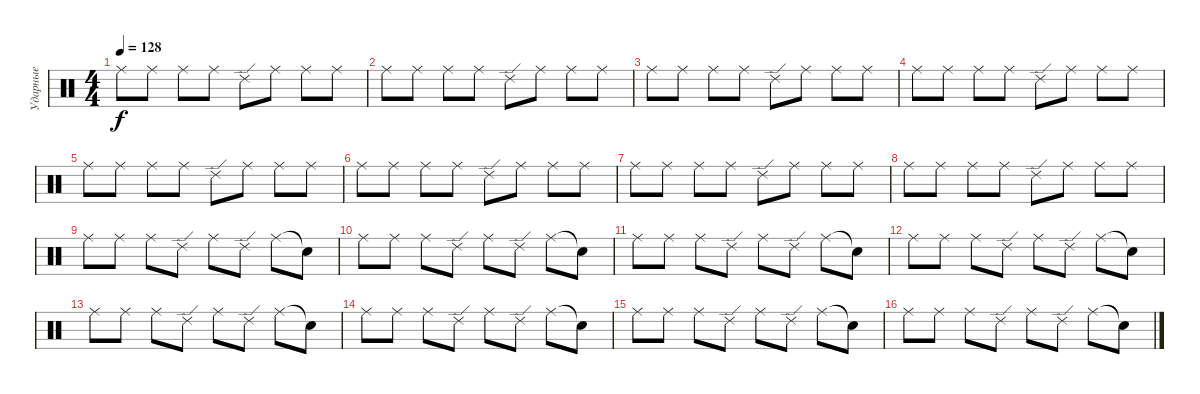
\track ("Ударные" "Ударные") {instrument percussion}
\staff {score}
\articulation defaults
\ts (4 4)
\tempo 128
\clef neutral
\ks c "Ride (middle)".8{dy f} "Ride (middle)".8 "Ride (middle)".8 "Ride (middle)".8 "Ride (edge) 2".8 "Ride (middle)".8 "Ride (middle)".8 "Ride (middle)".8
|
"Ride (middle)".8 "Ride (middle)".8 "Ride (middle)".8 "Ride (middle)".8 "Ride (edge) 2".8 "Ride (middle)".8 "Ride (middle)".8 "Ride (middle)".8 |
"Ride (middle)".8 "Ride (middle)".8 "Ride (middle)".8 "Ride (middle)".8 "Ride (edge) 2".8 "Ride (middle)".8 "Ride (middle)".8 "Ride (middle)".8 |
"Ride (middle)".8 "Ride (middle)".8 "Ride (middle)".8 "Ride (middle)".8 "Ride (edge) 2".8 "Ride (middle)".8 "Ride (middle)".8 "Ride (middle)".8 |
"Ride (middle)".8 "Ride (middle)".8 "Ride (middle)".8 "Ride (middle)".8 "Ride (edge) 2".8 "Ride (middle)".8 "Ride (middle)".8 "Ride (middle)".8 |
"Ride (middle)".8 "Ride (middle)".8 "Ride (middle)".8 "Ride (middle)".8 "Ride (edge) 2".8 "Ride (middle)".8 "Ride (middle)".8 "Ride (middle)".8 |
"Ride (middle)".8 "Ride (middle)".8 "Ride (middle)".8 "Ride (middle)".8 "Ride (edge) 2".8 "Ride (middle)".8 "Ride (middle)".8 "Ride (middle)".8 |
"Ride (middle)".8 "Ride (middle)".8 "Ride (middle)".8 "Ride (middle)".8 "Ride (edge) 2".8 "Ride (middle)".8 "Ride (middle)".8 "Ride (middle)".8 |
"Ride (middle)".8 "Ride (middle)".8 "Ride (middle)".8 "Ride (edge) 2".8 "Ride (middle)".8 "Ride (edge) 2".8 "Ride (middle)".8 "Snare (hit)"{t}.8 |
"Ride (middle)".8 "Ride (middle)".8 "Ride (middle)".8 "Ride (edge) 2".8 "Ride (middle)".8 "Ride (edge) 2".8 "Ride (middle)".8 "Snare (hit)"{t}.8 |
"Ride (middle)".8 "Ride (middle)".8 "Ride (middle)".8 "Ride (edge) 2".8 "Ride (middle)".8 "Ride (edge) 2".8 "Ride (middle)".8 "Snare (hit)"{t}.8 |
"Ride (middle)".8 "Ride (middle)".8 "Ride (middle)".8 "Ride (edge) 2".8 "Ride (middle)".8 "Ride (edge) 2".8 "Ride (middle)".8 "Snare (hit)"{t}.8 |
"Ride (middle)".8 "Ride (middle)".8 "Ride (middle)".8 "Ride (edge) 2".8 "Ride (middle)".8 "Ride (edge) 2".8 "Ride (middle)".8 "Snare (hit)"{t}.8 |
"Ride (middle)".8 "Ride (middle)".8 "Ride (middle)".8 "Ride (edge) 2".8 "Ride (middle)".8 "Ride (edge) 2".8 "Ride (middle)".8 "Snare (hit)"{t}.8 |
"Ride (middle)".8 "Ride (middle)".8 "Ride (middle)".8 "Ride (edge) 2".8 "Ride (middle)".8 "Ride (edge) 2".8 "Ride (middle)".8 "Snare (hit)"{t}.8 |
"Ride (middle)".8 "Ride (middle)".8 "Ride (middle)".8 "Ride (edge) 2".8 "Ride (middle)".8 "Ride (edge) 2".8 "Ride (middle)".8 "Snare (hit)"{t}.8
